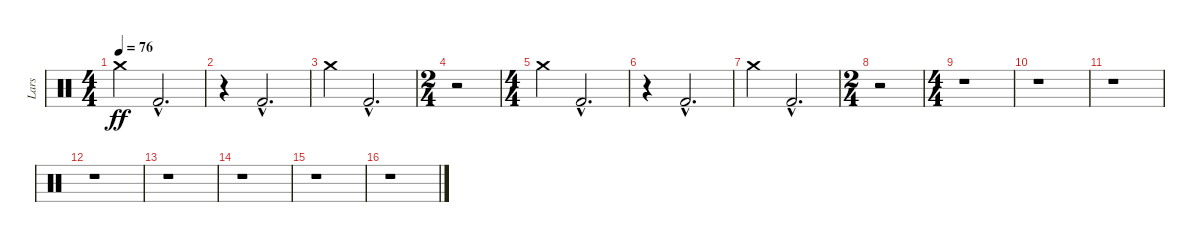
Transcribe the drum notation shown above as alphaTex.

\track ("Lars" "Lars") {instrument percussion}
\staff {score}
\articulation defaults
\ts (4 4)
\tempo 76
\clef neutral
\ks c "Crash medium (hit)".4{dy ff} "Kick (hit) 2"{hac}.2{d}
|
r.4 "Kick (hit) 2"{hac}.2{d} |
"Crash medium (hit)".4 "Kick (hit) 2"{hac}.2{d} |
\ts (2 4)
r.2 |
\ts (4 4)
"Crash medium (hit)".4 "Kick (hit) 2"{hac}.2{d} |
r.4 "Kick (hit) 2"{hac}.2{d} |
"Crash medium (hit)".4 "Kick (hit) 2"{hac}.2{d} |
\ts (2 4)
r.2 |
\ts (4 4)
r.1 |
r.1 |
r.1 |
r.1 |
r.1 |
r.1 |
r.1 |
r.1
